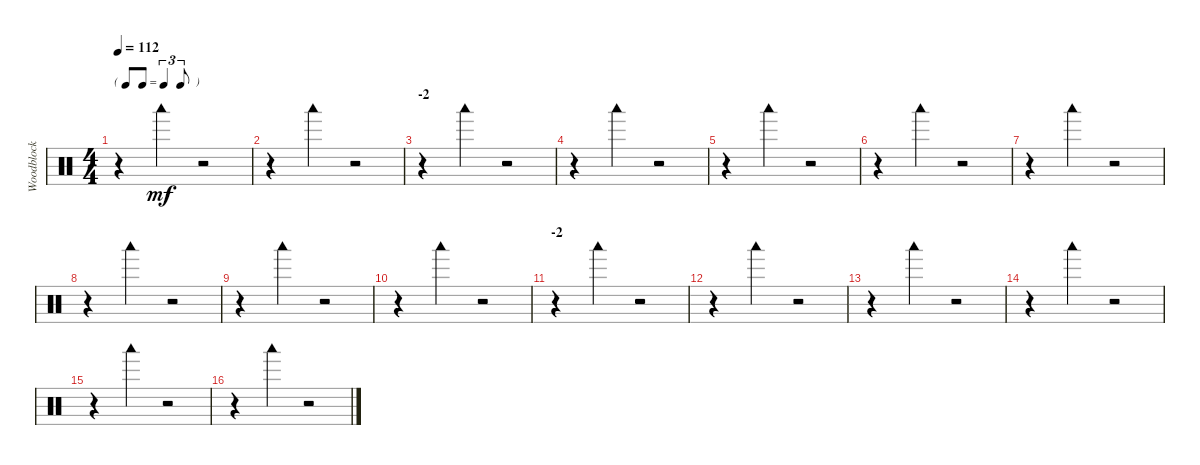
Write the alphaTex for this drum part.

\track ("Woodblock" "Woodblock") {instrument percussion}
\staff {score}
\articulation defaults
\ts (4 4)
\tf triplet8th
\tempo 112
\clef neutral
\ks c
r.4{dy mf} "Woodblock low (hit)".4 r.2 |
r.4 "Woodblock low (hit)".4 r.2 |
\section ("" "-2")
r.4 "Woodblock low (hit)".4 r.2 |
r.4 "Woodblock low (hit)".4 r.2 |
r.4 "Woodblock low (hit)".4 r.2 |
r.4 "Woodblock low (hit)".4 r.2 |
r.4 "Woodblock low (hit)".4 r.2 |
r.4 "Woodblock low (hit)".4 r.2 |
r.4 "Woodblock low (hit)".4 r.2 |
r.4 "Woodblock low (hit)".4 r.2 |
\section ("" "-2")
r.4 "Woodblock low (hit)".4 r.2 |
r.4 "Woodblock low (hit)".4 r.2 |
r.4 "Woodblock low (hit)".4 r.2 |
r.4 "Woodblock low (hit)".4 r.2 |
r.4 "Woodblock low (hit)".4 r.2 |
r.4 "Woodblock low (hit)".4 r.2
